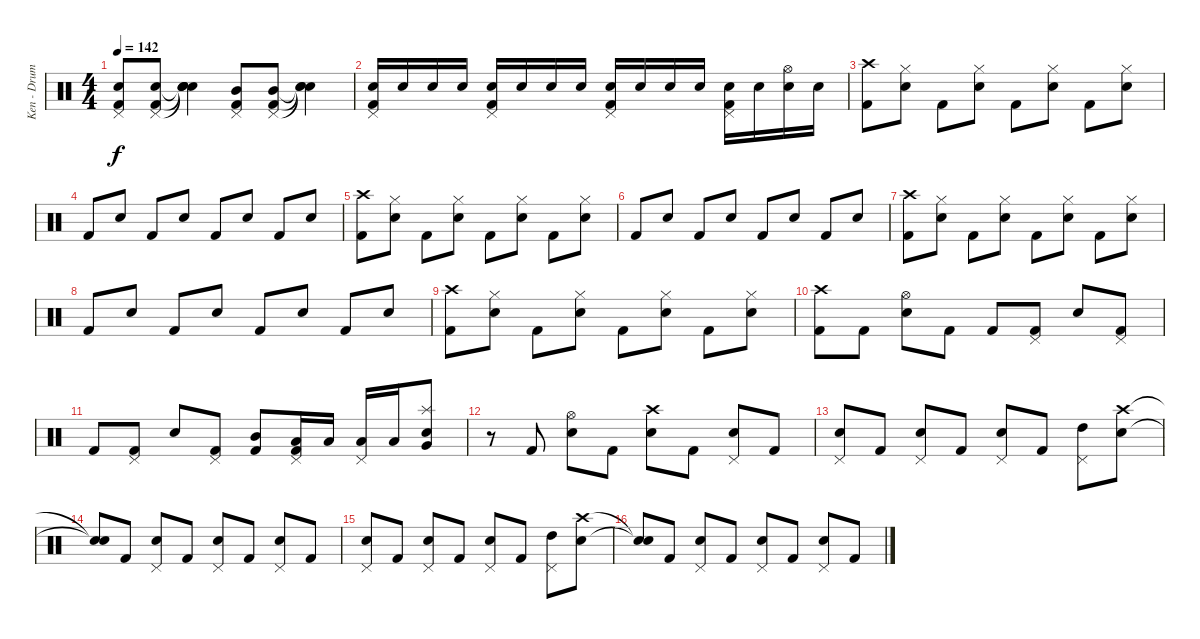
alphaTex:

\track ("Ken - Drums" "Ken - Drum") {instrument percussion}
\staff {score}
\articulation defaults
\ts (4 4)
\tempo 142
\clef neutral
\ks c
("Pedal Hi-Hat (hit)" "Electric Snare (hit)" "Kick (hit) 2").8{dy f} ("Pedal Hi-Hat (hit)" "Electric Snare (hit)" "Kick (hit) 2").8 ("Snare (hit)"{t} "Snare (hit)"{t} "Snare (hit)"{t} "Snare (hit)"{t}).4 ("Pedal Hi-Hat (hit)" "Mid Tom (hit)" "Kick (hit) 2").8 ("Pedal Hi-Hat (hit)" "Mid Tom (hit)" "Kick (hit) 2").8 ("Snare (hit)"{t} "Snare (hit)"{t} "Snare (hit)"{t}).4 |
("Pedal Hi-Hat (hit)" "Electric Snare (hit)" "Kick (hit) 2").16 "Electric Snare (hit)".16 "Electric Snare (hit)".16 "Electric Snare (hit)".16 ("Pedal Hi-Hat (hit)" "Electric Snare (hit)" "Kick (hit) 2").16 "Electric Snare (hit)".16 "Electric Snare (hit)".16 "Electric Snare (hit)".16 ("Pedal Hi-Hat (hit)" "Electric Snare (hit)" "Kick (hit) 2").16 "Electric Snare (hit)".16 "Electric Snare (hit)".16 "Electric Snare (hit)".16 ("Pedal Hi-Hat (hit)" "Electric Snare (hit)" "Kick (hit) 2").16 "Electric Snare (hit)".16 ("Hi-Hat (open)" "Electric Snare (hit)").16 "Electric Snare (hit)".16 |
("Crash high (hit)" "Kick (hit) 2").8 ("Hi-Hat (closed)" "Electric Snare (hit)").8 "Kick (hit) 2".8 ("Hi-Hat (closed)" "Electric Snare (hit)").8 "Kick (hit) 2".8 ("Hi-Hat (closed)" "Electric Snare (hit)").8 "Kick (hit) 2".8 ("Hi-Hat (closed)" "Electric Snare (hit)").8 |
"Kick (hit) 2".8 "Electric Snare (hit)".8 "Kick (hit) 2".8 "Electric Snare (hit)".8 "Kick (hit) 2".8 "Electric Snare (hit)".8 "Kick (hit) 2".8 "Electric Snare (hit)".8 |
("Crash high (hit)" "Kick (hit) 2").8 ("Hi-Hat (closed)" "Electric Snare (hit)").8 "Kick (hit) 2".8 ("Hi-Hat (closed)" "Electric Snare (hit)").8 "Kick (hit) 2".8 ("Hi-Hat (closed)" "Electric Snare (hit)").8 "Kick (hit) 2".8 ("Hi-Hat (closed)" "Electric Snare (hit)").8 |
"Kick (hit) 2".8 "Electric Snare (hit)".8 "Kick (hit) 2".8 "Electric Snare (hit)".8 "Kick (hit) 2".8 "Electric Snare (hit)".8 "Kick (hit) 2".8 "Electric Snare (hit)".8 |
("Crash high (hit)" "Kick (hit) 2").8 ("Hi-Hat (closed)" "Electric Snare (hit)").8 "Kick (hit) 2".8 ("Hi-Hat (closed)" "Electric Snare (hit)").8 "Kick (hit) 2".8 ("Hi-Hat (closed)" "Electric Snare (hit)").8 "Kick (hit) 2".8 ("Hi-Hat (closed)" "Electric Snare (hit)").8 |
"Kick (hit) 2".8 "Electric Snare (hit)".8 "Kick (hit) 2".8 "Electric Snare (hit)".8 "Kick (hit) 2".8 "Electric Snare (hit)".8 "Kick (hit) 2".8 "Electric Snare (hit)".8 |
("Crash high (hit)" "Kick (hit) 2").8 ("Hi-Hat (closed)" "Electric Snare (hit)").8 "Kick (hit) 2".8 ("Hi-Hat (closed)" "Electric Snare (hit)").8 "Kick (hit) 2".8 ("Hi-Hat (closed)" "Electric Snare (hit)").8 "Kick (hit) 2".8 ("Hi-Hat (closed)" "Electric Snare (hit)").8 |
("Crash high (hit)" "Kick (hit) 2").8 "Kick (hit) 2".8 ("Hi-Hat (open)" "Electric Snare (hit)").8 "Kick (hit) 2".8 "Kick (hit) 2".8 ("Pedal Hi-Hat (hit)" "Kick (hit) 2").8 "Electric Snare (hit)".8 ("Pedal Hi-Hat (hit)" "Kick (hit) 2").8 |
"Kick (hit) 2".8 ("Pedal Hi-Hat (hit)" "Kick (hit) 2").8 "Electric Snare (hit)".8 ("Pedal Hi-Hat (hit)" "Kick (hit) 2").8 ("Mid Tom (hit)" "Kick (hit) 2").8 ("Pedal Hi-Hat (hit)" "Low Tom (hit)" "Kick (hit) 2").16 "Low Tom (hit)".16 ("Pedal Hi-Hat (hit)" "Low Tom (hit)").16 "Low Tom (hit)".16 ("Splash (hit)" "Electric Snare (hit)" "Very Low Tom (hit)").8 |
r.8 "Kick (hit) 2".8 ("Hi-Hat (open)" "Electric Snare (hit)").8 "Kick (hit) 2".8 ("Crash high (hit)" "Electric Snare (hit)").8 "Kick (hit) 2".8 ("Pedal Hi-Hat (hit)" "Electric Snare (hit)").8 "Kick (hit) 2".8 |
("Pedal Hi-Hat (hit)" "Electric Snare (hit)").8 "Kick (hit) 2".8 ("Pedal Hi-Hat (hit)" "Electric Snare (hit)").8 "Kick (hit) 2".8 ("Pedal Hi-Hat (hit)" "Electric Snare (hit)").8 "Kick (hit) 2".8 ("Pedal Hi-Hat (hit)" "High Tom (hit)").8 ("Crash high (hit)" "Electric Snare (hit)").8 |
("Snare (hit)"{t} "Snare (hit)"{t}).8 "Kick (hit) 2".8 ("Pedal Hi-Hat (hit)" "Electric Snare (hit)").8 "Kick (hit) 2".8 ("Pedal Hi-Hat (hit)" "Electric Snare (hit)").8 "Kick (hit) 2".8 ("Pedal Hi-Hat (hit)" "Electric Snare (hit)").8 "Kick (hit) 2".8 |
("Pedal Hi-Hat (hit)" "Electric Snare (hit)").8 "Kick (hit) 2".8 ("Pedal Hi-Hat (hit)" "Electric Snare (hit)").8 "Kick (hit) 2".8 ("Pedal Hi-Hat (hit)" "Electric Snare (hit)").8 "Kick (hit) 2".8 ("Pedal Hi-Hat (hit)" "High Tom (hit)").8 ("Crash high (hit)" "Electric Snare (hit)").8 |
("Snare (hit)"{t} "Snare (hit)"{t}).8 "Kick (hit) 2".8 ("Pedal Hi-Hat (hit)" "Electric Snare (hit)").8 "Kick (hit) 2".8 ("Pedal Hi-Hat (hit)" "Electric Snare (hit)").8 "Kick (hit) 2".8 ("Pedal Hi-Hat (hit)" "Electric Snare (hit)").8 "Kick (hit) 2".8
